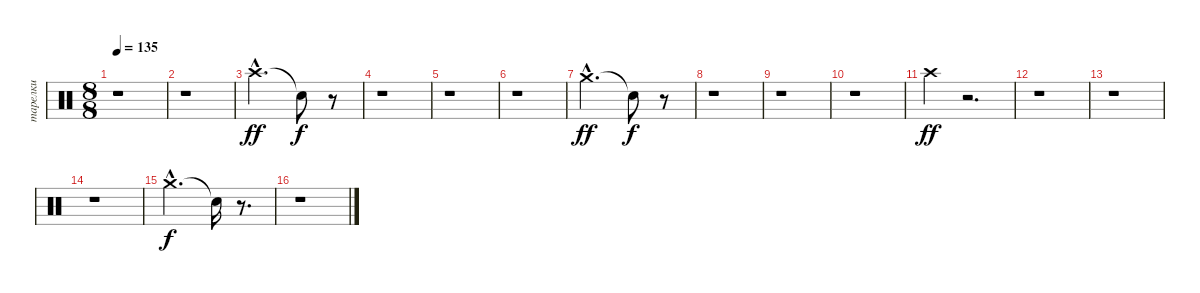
\track ("тарелки" "тарелки") {instrument percussion}
\staff {score}
\articulation defaults
\ts (8 8)
\tempo 135
\clef neutral
\ks c
r.1{dy ff} |
r.1 |
"Crash high (hit)"{hac}.2{d} "Snare (hit)"{t}.8{dy f} r.8 |
r.1 |
r.1 |
r.1 |
"Crash medium (hit)"{hac}.2{d dy ff} "Snare (hit)"{t}.8{dy f} r.8 |
r.1 |
r.1 |
r.1 |
"Crash high (hit)".4{dy ff} r.2{d} |
r.1 |
r.1 |
r.1 |
"Crash medium (hit)"{hac}.2{d dy f} "Snare (hit)"{t}.16 r.8{d} |
r.1
